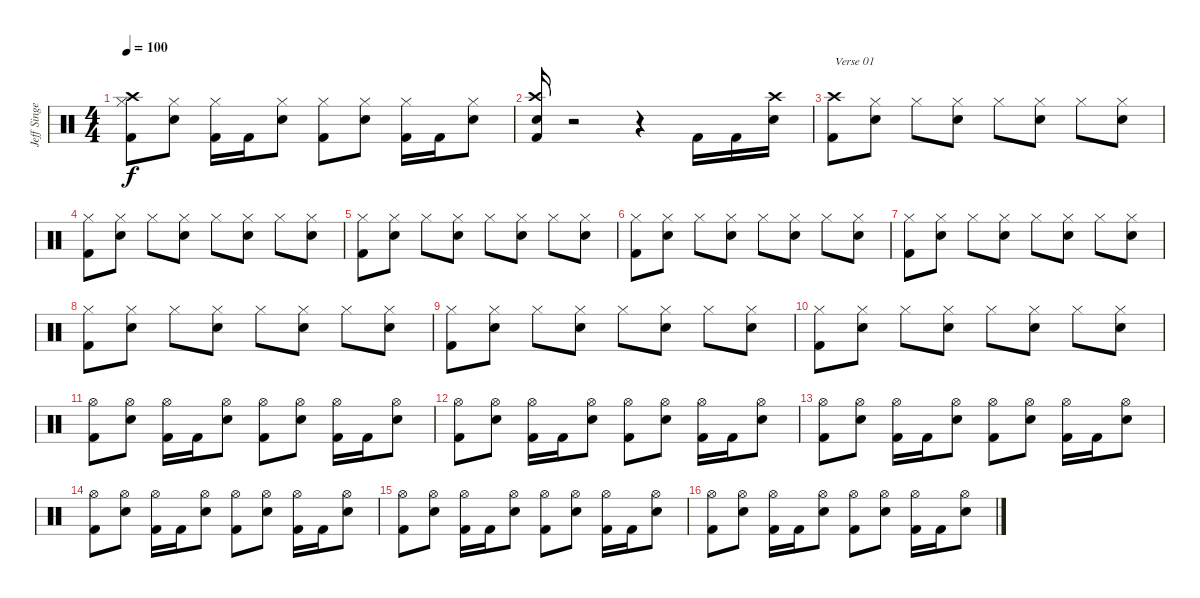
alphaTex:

\track ("Jeff Singer" "Jeff Singe") {instrument percussion}
\staff {score}
\articulation defaults
\ts (4 4)
\tempo 100
\clef neutral
\ks c
("Hi-Hat (closed)" "Kick (hit) 2" "Crash high (hit)").8{dy f} ("Hi-Hat (closed)" "Snare (hit) 2").8 ("Hi-Hat (closed)" "Kick (hit) 2").16 "Kick (hit) 2".16 ("Hi-Hat (closed)" "Snare (hit) 2").8 ("Hi-Hat (closed)" "Kick (hit) 2").8 ("Hi-Hat (closed)" "Snare (hit) 2").8 ("Hi-Hat (closed)" "Kick (hit) 2").16 "Kick (hit) 2".16 ("Hi-Hat (closed)" "Snare (hit) 2").8 |
("Kick (hit) 2" "Snare (hit) 2" "Crash high (hit)").16 r.2 r.4 "Kick (hit) 2".16 "Kick (hit) 2".16 ("Snare (hit) 2" "Crash high (hit)").16 |
("Crash high (hit)" "Kick (hit) 2").8{txt "Verse 01"} ("Hi-Hat (closed)" "Snare (hit) 2").8 "Hi-Hat (closed)".8 ("Hi-Hat (closed)" "Snare (hit) 2").8 "Hi-Hat (closed)".8 ("Hi-Hat (closed)" "Snare (hit) 2").8 "Hi-Hat (closed)".8 ("Hi-Hat (closed)" "Snare (hit) 2").8 |
("Hi-Hat (closed)" "Kick (hit) 2").8 ("Hi-Hat (closed)" "Snare (hit) 2").8 "Hi-Hat (closed)".8 ("Hi-Hat (closed)" "Snare (hit) 2").8 "Hi-Hat (closed)".8 ("Hi-Hat (closed)" "Snare (hit) 2").8 "Hi-Hat (closed)".8 ("Hi-Hat (closed)" "Snare (hit) 2").8 |
("Hi-Hat (closed)" "Kick (hit) 2").8 ("Hi-Hat (closed)" "Snare (hit) 2").8 "Hi-Hat (closed)".8 ("Hi-Hat (closed)" "Snare (hit) 2").8 "Hi-Hat (closed)".8 ("Hi-Hat (closed)" "Snare (hit) 2").8 "Hi-Hat (closed)".8 ("Hi-Hat (closed)" "Snare (hit) 2").8 |
("Hi-Hat (closed)" "Kick (hit) 2").8 ("Hi-Hat (closed)" "Snare (hit) 2").8 "Hi-Hat (closed)".8 ("Hi-Hat (closed)" "Snare (hit) 2").8 "Hi-Hat (closed)".8 ("Hi-Hat (closed)" "Snare (hit) 2").8 "Hi-Hat (closed)".8 ("Hi-Hat (closed)" "Snare (hit) 2").8 |
("Hi-Hat (closed)" "Kick (hit) 2").8 ("Hi-Hat (closed)" "Snare (hit) 2").8 "Hi-Hat (closed)".8 ("Hi-Hat (closed)" "Snare (hit) 2").8 "Hi-Hat (closed)".8 ("Hi-Hat (closed)" "Snare (hit) 2").8 "Hi-Hat (closed)".8 ("Hi-Hat (closed)" "Snare (hit) 2").8 |
("Hi-Hat (closed)" "Kick (hit) 2").8 ("Hi-Hat (closed)" "Snare (hit) 2").8 "Hi-Hat (closed)".8 ("Hi-Hat (closed)" "Snare (hit) 2").8 "Hi-Hat (closed)".8 ("Hi-Hat (closed)" "Snare (hit) 2").8 "Hi-Hat (closed)".8 ("Hi-Hat (closed)" "Snare (hit) 2").8 |
("Hi-Hat (closed)" "Kick (hit) 2").8 ("Hi-Hat (closed)" "Snare (hit) 2").8 "Hi-Hat (closed)".8 ("Hi-Hat (closed)" "Snare (hit) 2").8 "Hi-Hat (closed)".8 ("Hi-Hat (closed)" "Snare (hit) 2").8 "Hi-Hat (closed)".8 ("Hi-Hat (closed)" "Snare (hit) 2").8 |
("Hi-Hat (closed)" "Kick (hit) 2").8 ("Hi-Hat (closed)" "Snare (hit) 2").8 "Hi-Hat (closed)".8 ("Hi-Hat (closed)" "Snare (hit) 2").8 "Hi-Hat (closed)".8 ("Hi-Hat (closed)" "Snare (hit) 2").8 "Hi-Hat (closed)".8 ("Hi-Hat (closed)" "Snare (hit) 2").8 |
("Hi-Hat (open)" "Kick (hit) 2").8 ("Hi-Hat (open)" "Snare (hit) 2").8 ("Hi-Hat (open)" "Kick (hit) 2").16 "Kick (hit) 2".16 ("Hi-Hat (open)" "Snare (hit) 2").8 ("Hi-Hat (open)" "Kick (hit) 2").8 ("Hi-Hat (open)" "Snare (hit) 2").8 ("Hi-Hat (open)" "Kick (hit) 2").16 "Kick (hit) 2".16 ("Hi-Hat (open)" "Snare (hit) 2").8 |
("Hi-Hat (open)" "Kick (hit) 2").8 ("Hi-Hat (open)" "Snare (hit) 2").8 ("Hi-Hat (open)" "Kick (hit) 2").16 "Kick (hit) 2".16 ("Hi-Hat (open)" "Snare (hit) 2").8 ("Hi-Hat (open)" "Kick (hit) 2").8 ("Hi-Hat (open)" "Snare (hit) 2").8 ("Hi-Hat (open)" "Kick (hit) 2").16 "Kick (hit) 2".16 ("Hi-Hat (open)" "Snare (hit) 2").8 |
("Hi-Hat (open)" "Kick (hit) 2").8 ("Hi-Hat (open)" "Snare (hit) 2").8 ("Hi-Hat (open)" "Kick (hit) 2").16 "Kick (hit) 2".16 ("Hi-Hat (open)" "Snare (hit) 2").8 ("Hi-Hat (open)" "Kick (hit) 2").8 ("Hi-Hat (open)" "Snare (hit) 2").8 ("Hi-Hat (open)" "Kick (hit) 2").16 "Kick (hit) 2".16 ("Hi-Hat (open)" "Snare (hit) 2").8 |
("Hi-Hat (open)" "Kick (hit) 2").8 ("Hi-Hat (open)" "Snare (hit) 2").8 ("Hi-Hat (open)" "Kick (hit) 2").16 "Kick (hit) 2".16 ("Hi-Hat (open)" "Snare (hit) 2").8 ("Hi-Hat (open)" "Kick (hit) 2").8 ("Hi-Hat (open)" "Snare (hit) 2").8 ("Hi-Hat (open)" "Kick (hit) 2").16 "Kick (hit) 2".16 ("Hi-Hat (open)" "Snare (hit) 2").8 |
("Hi-Hat (open)" "Kick (hit) 2").8 ("Hi-Hat (open)" "Snare (hit) 2").8 ("Hi-Hat (open)" "Kick (hit) 2").16 "Kick (hit) 2".16 ("Hi-Hat (open)" "Snare (hit) 2").8 ("Hi-Hat (open)" "Kick (hit) 2").8 ("Hi-Hat (open)" "Snare (hit) 2").8 ("Hi-Hat (open)" "Kick (hit) 2").16 "Kick (hit) 2".16 ("Hi-Hat (open)" "Snare (hit) 2").8 |
("Hi-Hat (open)" "Kick (hit) 2").8 ("Hi-Hat (open)" "Snare (hit) 2").8 ("Hi-Hat (open)" "Kick (hit) 2").16 "Kick (hit) 2".16 ("Hi-Hat (open)" "Snare (hit) 2").8 ("Hi-Hat (open)" "Kick (hit) 2").8 ("Hi-Hat (open)" "Snare (hit) 2").8 ("Hi-Hat (open)" "Kick (hit) 2").16 "Kick (hit) 2".16 ("Hi-Hat (open)" "Snare (hit) 2").8
